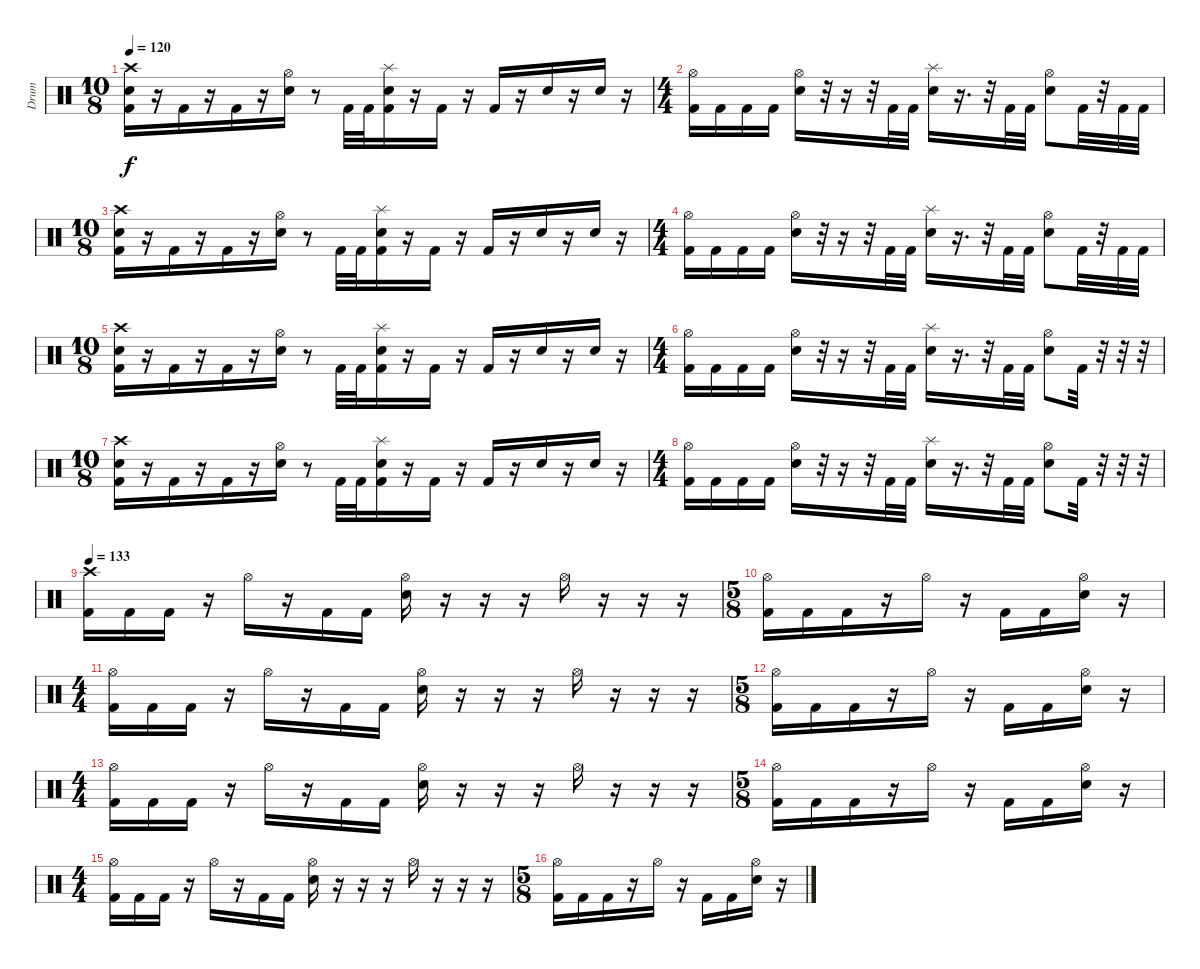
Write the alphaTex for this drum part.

\track ("Drum" "Drum") {instrument percussion}
\staff {score}
\articulation defaults
\ts (10 8)
\tempo 120
\clef neutral
\ks c
("Crash high (hit)" "Snare (hit) 2" "Kick (hit) 2").16{dy f} r.16 "Kick (hit) 2".16 r.16 "Kick (hit) 2".16 r.16 ("Hi-Hat (open)" "Snare (hit) 2").16 r.8 "Kick (hit) 2".32 "Kick (hit) 2".32 ("Splash (hit)" "Snare (hit) 2" "Kick (hit) 2").16 r.16 "Kick (hit) 2".16 r.16 "Kick (hit) 2".16 r.16 "Snare (hit) 2".16 r.16 "Snare (hit) 2".16 r.16 |
\ts (4 4)
("Hi-Hat (open)" "Kick (hit) 2").16 "Kick (hit) 2".16 "Kick (hit) 2".16 "Kick (hit) 2".16 ("Hi-Hat (open)" "Snare (hit) 2").16 r.32 r.16 r.32 "Kick (hit) 2".32 "Kick (hit) 2".32 ("Splash (hit)" "Snare (hit) 2").16 r.16{d} r.32 "Kick (hit) 2".32 "Kick (hit) 2".32 ("Hi-Hat (open)" "Snare (hit) 2").8 "Kick (hit) 2".32 r.32 "Kick (hit) 2".32 "Kick (hit) 2".32 |
\ts (10 8)
("Crash high (hit)" "Snare (hit) 2" "Kick (hit) 2").16 r.16 "Kick (hit) 2".16 r.16 "Kick (hit) 2".16 r.16 ("Hi-Hat (open)" "Snare (hit) 2").16 r.8 "Kick (hit) 2".32 "Kick (hit) 2".32 ("Splash (hit)" "Snare (hit) 2" "Kick (hit) 2").16 r.16 "Kick (hit) 2".16 r.16 "Kick (hit) 2".16 r.16 "Snare (hit) 2".16 r.16 "Snare (hit) 2".16 r.16 |
\ts (4 4)
("Hi-Hat (open)" "Kick (hit) 2").16 "Kick (hit) 2".16 "Kick (hit) 2".16 "Kick (hit) 2".16 ("Hi-Hat (open)" "Snare (hit) 2").16 r.32 r.16 r.32 "Kick (hit) 2".32 "Kick (hit) 2".32 ("Splash (hit)" "Snare (hit) 2").16 r.16{d} r.32 "Kick (hit) 2".32 "Kick (hit) 2".32 ("Hi-Hat (open)" "Snare (hit) 2").8 "Kick (hit) 2".32 r.32 "Kick (hit) 2".32 "Kick (hit) 2".32 |
\ts (10 8)
("Crash high (hit)" "Snare (hit) 2" "Kick (hit) 2").16 r.16 "Kick (hit) 2".16 r.16 "Kick (hit) 2".16 r.16 ("Hi-Hat (open)" "Snare (hit) 2").16 r.8 "Kick (hit) 2".32 "Kick (hit) 2".32 ("Splash (hit)" "Snare (hit) 2" "Kick (hit) 2").16 r.16 "Kick (hit) 2".16 r.16 "Kick (hit) 2".16 r.16 "Snare (hit) 2".16 r.16 "Snare (hit) 2".16 r.16 |
\ts (4 4)
("Hi-Hat (open)" "Kick (hit) 2").16 "Kick (hit) 2".16 "Kick (hit) 2".16 "Kick (hit) 2".16 ("Hi-Hat (open)" "Snare (hit) 2").16 r.32 r.16 r.32 "Kick (hit) 2".32 "Kick (hit) 2".32 ("Splash (hit)" "Snare (hit) 2").16 r.16{d} r.32 "Kick (hit) 2".32 "Kick (hit) 2".32 ("Hi-Hat (open)" "Snare (hit) 2").8 "Kick (hit) 2".32 r.32 r.32 r.32 |
\ts (10 8)
("Crash high (hit)" "Snare (hit) 2" "Kick (hit) 2").16 r.16 "Kick (hit) 2".16 r.16 "Kick (hit) 2".16 r.16 ("Hi-Hat (open)" "Snare (hit) 2").16 r.8 "Kick (hit) 2".32 "Kick (hit) 2".32 ("Splash (hit)" "Snare (hit) 2" "Kick (hit) 2").16 r.16 "Kick (hit) 2".16 r.16 "Kick (hit) 2".16 r.16 "Snare (hit) 2".16 r.16 "Snare (hit) 2".16 r.16 |
\ts (4 4)
("Hi-Hat (open)" "Kick (hit) 2").16 "Kick (hit) 2".16 "Kick (hit) 2".16 "Kick (hit) 2".16 ("Hi-Hat (open)" "Snare (hit) 2").16 r.32 r.16 r.32 "Kick (hit) 2".32 "Kick (hit) 2".32 ("Splash (hit)" "Snare (hit) 2").16 r.16{d} r.32 "Kick (hit) 2".32 "Kick (hit) 2".32 ("Hi-Hat (open)" "Snare (hit) 2").8 "Kick (hit) 2".32 r.32 r.32 r.32 |
\tempo 133
("Crash high (hit)" "Kick (hit) 2").16 "Kick (hit) 2".16 "Kick (hit) 2".16 r.16 "Hi-Hat (open)".16 r.16 "Kick (hit) 2".16 "Kick (hit) 2".16 ("Hi-Hat (open)" "Snare (hit) 2").16 r.16 r.16 r.16 "Hi-Hat (open)".16 r.16 r.16 r.16 |
\ts (5 8)
("Hi-Hat (open)" "Kick (hit) 2").16 "Kick (hit) 2".16 "Kick (hit) 2".16 r.16 "Hi-Hat (open)".16 r.16 "Kick (hit) 2".16 "Kick (hit) 2".16 ("Hi-Hat (open)" "Snare (hit) 2").16 r.16 |
\ts (4 4)
("Hi-Hat (open)" "Kick (hit) 2").16 "Kick (hit) 2".16 "Kick (hit) 2".16 r.16 "Hi-Hat (open)".16 r.16 "Kick (hit) 2".16 "Kick (hit) 2".16 ("Hi-Hat (open)" "Snare (hit) 2").16 r.16 r.16 r.16 "Hi-Hat (open)".16 r.16 r.16 r.16 |
\ts (5 8)
("Hi-Hat (open)" "Kick (hit) 2").16 "Kick (hit) 2".16 "Kick (hit) 2".16 r.16 "Hi-Hat (open)".16 r.16 "Kick (hit) 2".16 "Kick (hit) 2".16 ("Hi-Hat (open)" "Snare (hit) 2").16 r.16 |
\ts (4 4)
("Hi-Hat (open)" "Kick (hit) 2").16 "Kick (hit) 2".16 "Kick (hit) 2".16 r.16 "Hi-Hat (open)".16 r.16 "Kick (hit) 2".16 "Kick (hit) 2".16 ("Hi-Hat (open)" "Snare (hit) 2").16 r.16 r.16 r.16 "Hi-Hat (open)".16 r.16 r.16 r.16 |
\ts (5 8)
("Hi-Hat (open)" "Kick (hit) 2").16 "Kick (hit) 2".16 "Kick (hit) 2".16 r.16 "Hi-Hat (open)".16 r.16 "Kick (hit) 2".16 "Kick (hit) 2".16 ("Hi-Hat (open)" "Snare (hit) 2").16 r.16 |
\ts (4 4)
("Hi-Hat (open)" "Kick (hit) 2").16 "Kick (hit) 2".16 "Kick (hit) 2".16 r.16 "Hi-Hat (open)".16 r.16 "Kick (hit) 2".16 "Kick (hit) 2".16 ("Hi-Hat (open)" "Snare (hit) 2").16 r.16 r.16 r.16 "Hi-Hat (open)".16 r.16 r.16 r.16 |
\ts (5 8)
("Hi-Hat (open)" "Kick (hit) 2").16 "Kick (hit) 2".16 "Kick (hit) 2".16 r.16 "Hi-Hat (open)".16 r.16 "Kick (hit) 2".16 "Kick (hit) 2".16 ("Hi-Hat (open)" "Snare (hit) 2").16 r.16
